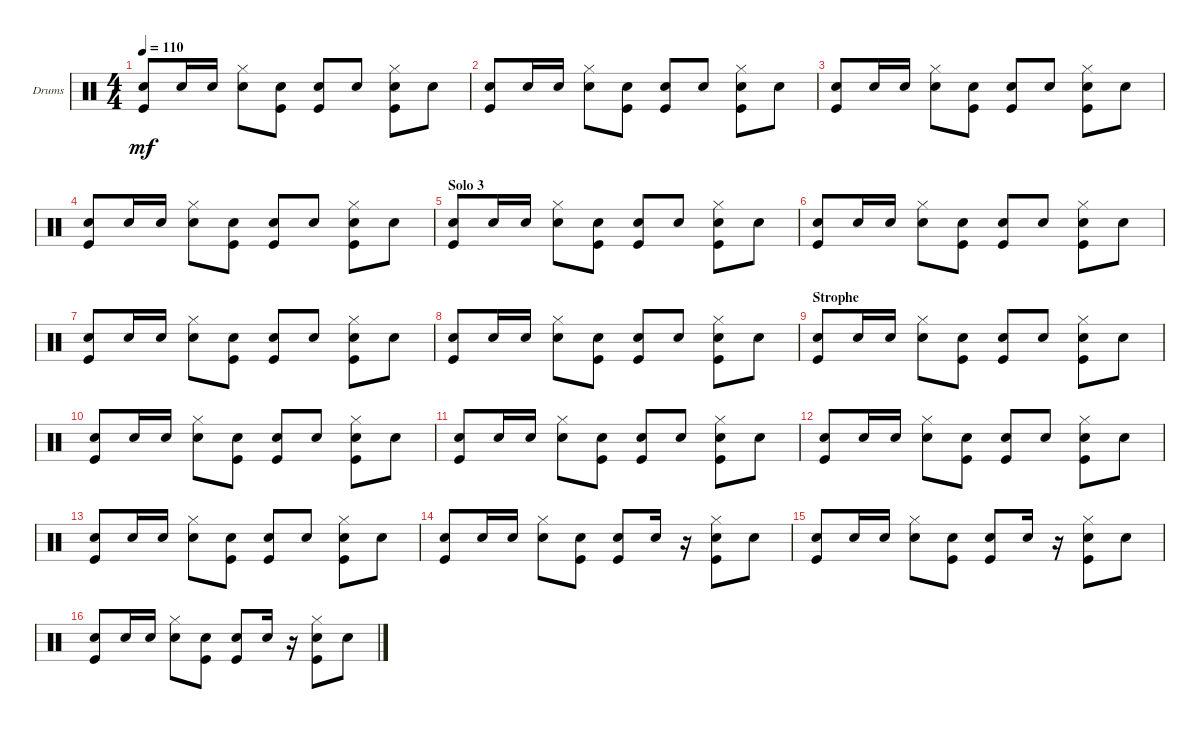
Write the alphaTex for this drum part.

\bracketExtendMode groupsimilarinstruments
\firstSystemTrackNameOrientation horizontal
\otherSystemsTrackNameOrientation horizontal
\track ("Drumkit" "Drums") {instrument percussion}
\staff {score}
\articulation defaults
\ts (4 4)
\tempo 110
\clef neutral
\ks c
("Kick (hit)" "Snare (hit) 2").8{dy mf} "Snare (hit) 2".16 "Snare (hit) 2".16 ("Snare (hit) 2" "Hi-Hat (closed)").8 ("Kick (hit)" "Snare (hit) 2").8 ("Kick (hit)" "Snare (hit) 2").8 "Snare (hit) 2".8 ("Kick (hit)" "Snare (hit) 2" "Hi-Hat (closed)").8 "Snare (hit) 2".8 |
("Kick (hit)" "Snare (hit) 2").8 "Snare (hit) 2".16 "Snare (hit) 2".16 ("Snare (hit) 2" "Hi-Hat (closed)").8 ("Kick (hit)" "Snare (hit) 2").8 ("Kick (hit)" "Snare (hit) 2").8 "Snare (hit) 2".8 ("Kick (hit)" "Snare (hit) 2" "Hi-Hat (closed)").8 "Snare (hit) 2".8 |
("Kick (hit)" "Snare (hit) 2").8 "Snare (hit) 2".16 "Snare (hit) 2".16 ("Snare (hit) 2" "Hi-Hat (closed)").8 ("Kick (hit)" "Snare (hit) 2").8 ("Kick (hit)" "Snare (hit) 2").8 "Snare (hit) 2".8 ("Kick (hit)" "Snare (hit) 2" "Hi-Hat (closed)").8 "Snare (hit) 2".8 |
("Kick (hit)" "Snare (hit) 2").8 "Snare (hit) 2".16 "Snare (hit) 2".16 ("Snare (hit) 2" "Hi-Hat (closed)").8 ("Kick (hit)" "Snare (hit) 2").8 ("Kick (hit)" "Snare (hit) 2").8 "Snare (hit) 2".8 ("Kick (hit)" "Snare (hit) 2" "Hi-Hat (closed)").8 "Snare (hit) 2".8 |
\section ("" "Solo 3")
\scale
0.218391 ("Kick (hit)" "Snare (hit) 2").8 "Snare (hit) 2".16 "Snare (hit) 2".16 ("Snare (hit) 2" "Hi-Hat (closed)").8 ("Kick (hit)" "Snare (hit) 2").8 ("Kick (hit)" "Snare (hit) 2").8 "Snare (hit) 2".8 ("Kick (hit)" "Snare (hit) 2" "Hi-Hat (closed)").8 "Snare (hit) 2".8 |
("Kick (hit)" "Snare (hit) 2").8 "Snare (hit) 2".16 "Snare (hit) 2".16 ("Snare (hit) 2" "Hi-Hat (closed)").8 ("Kick (hit)" "Snare (hit) 2").8 ("Kick (hit)" "Snare (hit) 2").8 "Snare (hit) 2".8 ("Kick (hit)" "Snare (hit) 2" "Hi-Hat (closed)").8 "Snare (hit) 2".8 |
("Kick (hit)" "Snare (hit) 2").8 "Snare (hit) 2".16 "Snare (hit) 2".16 ("Snare (hit) 2" "Hi-Hat (closed)").8 ("Kick (hit)" "Snare (hit) 2").8 ("Kick (hit)" "Snare (hit) 2").8 "Snare (hit) 2".8 ("Kick (hit)" "Snare (hit) 2" "Hi-Hat (closed)").8 "Snare (hit) 2".8 |
("Kick (hit)" "Snare (hit) 2").8 "Snare (hit) 2".16 "Snare (hit) 2".16 ("Snare (hit) 2" "Hi-Hat (closed)").8 ("Kick (hit)" "Snare (hit) 2").8 ("Kick (hit)" "Snare (hit) 2").8 "Snare (hit) 2".8 ("Kick (hit)" "Snare (hit) 2" "Hi-Hat (closed)").8 "Snare (hit) 2".8 |
\section ("" "Strophe")
("Kick (hit)" "Snare (hit) 2").8 "Snare (hit) 2".16 "Snare (hit) 2".16 ("Snare (hit) 2" "Hi-Hat (closed)").8 ("Kick (hit)" "Snare (hit) 2").8 ("Kick (hit)" "Snare (hit) 2").8 "Snare (hit) 2".8 ("Kick (hit)" "Snare (hit) 2" "Hi-Hat (closed)").8 "Snare (hit) 2".8 |
("Kick (hit)" "Snare (hit) 2").8 "Snare (hit) 2".16 "Snare (hit) 2".16 ("Snare (hit) 2" "Hi-Hat (closed)").8 ("Kick (hit)" "Snare (hit) 2").8 ("Kick (hit)" "Snare (hit) 2").8 "Snare (hit) 2".8 ("Kick (hit)" "Snare (hit) 2" "Hi-Hat (closed)").8 "Snare (hit) 2".8 |
("Kick (hit)" "Snare (hit) 2").8 "Snare (hit) 2".16 "Snare (hit) 2".16 ("Snare (hit) 2" "Hi-Hat (closed)").8 ("Kick (hit)" "Snare (hit) 2").8 ("Kick (hit)" "Snare (hit) 2").8 "Snare (hit) 2".8 ("Kick (hit)" "Snare (hit) 2" "Hi-Hat (closed)").8 "Snare (hit) 2".8 |
("Kick (hit)" "Snare (hit) 2").8 "Snare (hit) 2".16 "Snare (hit) 2".16 ("Snare (hit) 2" "Hi-Hat (closed)").8 ("Kick (hit)" "Snare (hit) 2").8 ("Kick (hit)" "Snare (hit) 2").8 "Snare (hit) 2".8 ("Kick (hit)" "Snare (hit) 2" "Hi-Hat (closed)").8 "Snare (hit) 2".8 |
("Kick (hit)" "Snare (hit) 2").8 "Snare (hit) 2".16 "Snare (hit) 2".16 ("Snare (hit) 2" "Hi-Hat (closed)").8 ("Kick (hit)" "Snare (hit) 2").8 ("Kick (hit)" "Snare (hit) 2").8 "Snare (hit) 2".8 ("Kick (hit)" "Snare (hit) 2" "Hi-Hat (closed)").8 "Snare (hit) 2".8 |
("Kick (hit)" "Snare (hit) 2").8 "Snare (hit) 2".16 "Snare (hit) 2".16 ("Snare (hit) 2" "Hi-Hat (closed)").8 ("Kick (hit)" "Snare (hit) 2").8 ("Kick (hit)" "Snare (hit) 2").8 "Snare (hit) 2".16 r.16 ("Kick (hit)" "Snare (hit) 2" "Hi-Hat (closed)").8 "Snare (hit) 2".8 |
("Kick (hit)" "Snare (hit) 2").8 "Snare (hit) 2".16 "Snare (hit) 2".16 ("Snare (hit) 2" "Hi-Hat (closed)").8 ("Kick (hit)" "Snare (hit) 2").8 ("Kick (hit)" "Snare (hit) 2").8 "Snare (hit) 2".16 r.16 ("Kick (hit)" "Snare (hit) 2" "Hi-Hat (closed)").8 "Snare (hit) 2".8 |
("Kick (hit)" "Snare (hit) 2").8 "Snare (hit) 2".16 "Snare (hit) 2".16 ("Snare (hit) 2" "Hi-Hat (closed)").8 ("Kick (hit)" "Snare (hit) 2").8 ("Kick (hit)" "Snare (hit) 2").8 "Snare (hit) 2".16 r.16 ("Kick (hit)" "Snare (hit) 2" "Hi-Hat (closed)").8 "Snare (hit) 2".8
